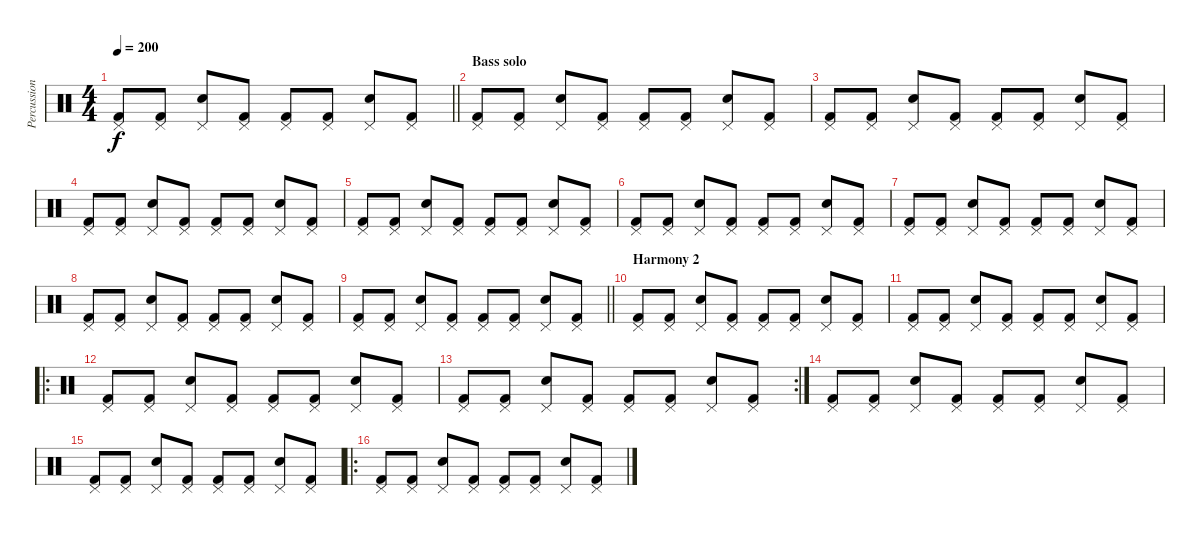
\track ("Percussion" "Percussion") {instrument percussion}
\staff {score}
\articulation defaults
\ts (4 4)
\tempo 200
\clef neutral
\barLineRight lightlight
\ks c
("Kick (hit) 2" "Pedal Hi-Hat (hit)").8{dy f} ("Kick (hit) 2" "Pedal Hi-Hat (hit)").8 ("Snare (hit) 2" "Pedal Hi-Hat (hit)").8 ("Kick (hit) 2" "Pedal Hi-Hat (hit)").8 ("Kick (hit) 2" "Pedal Hi-Hat (hit)").8 ("Kick (hit) 2" "Pedal Hi-Hat (hit)").8 ("Snare (hit) 2" "Pedal Hi-Hat (hit)").8 ("Kick (hit) 2" "Pedal Hi-Hat (hit)").8 |
\section ("" "Bass solo")
("Kick (hit) 2" "Pedal Hi-Hat (hit)").8 ("Kick (hit) 2" "Pedal Hi-Hat (hit)").8 ("Snare (hit) 2" "Pedal Hi-Hat (hit)").8 ("Kick (hit) 2" "Pedal Hi-Hat (hit)").8 ("Kick (hit) 2" "Pedal Hi-Hat (hit)").8 ("Kick (hit) 2" "Pedal Hi-Hat (hit)").8 ("Snare (hit) 2" "Pedal Hi-Hat (hit)").8 ("Kick (hit) 2" "Pedal Hi-Hat (hit)").8 |
("Kick (hit) 2" "Pedal Hi-Hat (hit)").8 ("Kick (hit) 2" "Pedal Hi-Hat (hit)").8 ("Snare (hit) 2" "Pedal Hi-Hat (hit)").8 ("Kick (hit) 2" "Pedal Hi-Hat (hit)").8 ("Kick (hit) 2" "Pedal Hi-Hat (hit)").8 ("Kick (hit) 2" "Pedal Hi-Hat (hit)").8 ("Snare (hit) 2" "Pedal Hi-Hat (hit)").8 ("Kick (hit) 2" "Pedal Hi-Hat (hit)").8 |
("Kick (hit) 2" "Pedal Hi-Hat (hit)").8 ("Kick (hit) 2" "Pedal Hi-Hat (hit)").8 ("Snare (hit) 2" "Pedal Hi-Hat (hit)").8 ("Kick (hit) 2" "Pedal Hi-Hat (hit)").8 ("Kick (hit) 2" "Pedal Hi-Hat (hit)").8 ("Kick (hit) 2" "Pedal Hi-Hat (hit)").8 ("Snare (hit) 2" "Pedal Hi-Hat (hit)").8 ("Kick (hit) 2" "Pedal Hi-Hat (hit)").8 |
("Kick (hit) 2" "Pedal Hi-Hat (hit)").8 ("Kick (hit) 2" "Pedal Hi-Hat (hit)").8 ("Snare (hit) 2" "Pedal Hi-Hat (hit)").8 ("Kick (hit) 2" "Pedal Hi-Hat (hit)").8 ("Kick (hit) 2" "Pedal Hi-Hat (hit)").8 ("Kick (hit) 2" "Pedal Hi-Hat (hit)").8 ("Snare (hit) 2" "Pedal Hi-Hat (hit)").8 ("Kick (hit) 2" "Pedal Hi-Hat (hit)").8 |
("Kick (hit) 2" "Pedal Hi-Hat (hit)").8 ("Kick (hit) 2" "Pedal Hi-Hat (hit)").8 ("Snare (hit) 2" "Pedal Hi-Hat (hit)").8 ("Kick (hit) 2" "Pedal Hi-Hat (hit)").8 ("Kick (hit) 2" "Pedal Hi-Hat (hit)").8 ("Kick (hit) 2" "Pedal Hi-Hat (hit)").8 ("Snare (hit) 2" "Pedal Hi-Hat (hit)").8 ("Kick (hit) 2" "Pedal Hi-Hat (hit)").8 |
("Kick (hit) 2" "Pedal Hi-Hat (hit)").8 ("Kick (hit) 2" "Pedal Hi-Hat (hit)").8 ("Snare (hit) 2" "Pedal Hi-Hat (hit)").8 ("Kick (hit) 2" "Pedal Hi-Hat (hit)").8 ("Kick (hit) 2" "Pedal Hi-Hat (hit)").8 ("Kick (hit) 2" "Pedal Hi-Hat (hit)").8 ("Snare (hit) 2" "Pedal Hi-Hat (hit)").8 ("Kick (hit) 2" "Pedal Hi-Hat (hit)").8 |
("Kick (hit) 2" "Pedal Hi-Hat (hit)").8 ("Kick (hit) 2" "Pedal Hi-Hat (hit)").8 ("Snare (hit) 2" "Pedal Hi-Hat (hit)").8 ("Kick (hit) 2" "Pedal Hi-Hat (hit)").8 ("Kick (hit) 2" "Pedal Hi-Hat (hit)").8 ("Kick (hit) 2" "Pedal Hi-Hat (hit)").8 ("Snare (hit) 2" "Pedal Hi-Hat (hit)").8 ("Kick (hit) 2" "Pedal Hi-Hat (hit)").8 |
\barLineRight lightlight
("Kick (hit) 2" "Pedal Hi-Hat (hit)").8 ("Kick (hit) 2" "Pedal Hi-Hat (hit)").8 ("Snare (hit) 2" "Pedal Hi-Hat (hit)").8 ("Kick (hit) 2" "Pedal Hi-Hat (hit)").8 ("Kick (hit) 2" "Pedal Hi-Hat (hit)").8 ("Kick (hit) 2" "Pedal Hi-Hat (hit)").8 ("Snare (hit) 2" "Pedal Hi-Hat (hit)").8 ("Kick (hit) 2" "Pedal Hi-Hat (hit)").8 |
\section ("" "Harmony 2")
("Kick (hit) 2" "Pedal Hi-Hat (hit)").8 ("Kick (hit) 2" "Pedal Hi-Hat (hit)").8 ("Snare (hit) 2" "Pedal Hi-Hat (hit)").8 ("Kick (hit) 2" "Pedal Hi-Hat (hit)").8 ("Kick (hit) 2" "Pedal Hi-Hat (hit)").8 ("Kick (hit) 2" "Pedal Hi-Hat (hit)").8 ("Snare (hit) 2" "Pedal Hi-Hat (hit)").8 ("Kick (hit) 2" "Pedal Hi-Hat (hit)").8 |
("Kick (hit) 2" "Pedal Hi-Hat (hit)").8 ("Kick (hit) 2" "Pedal Hi-Hat (hit)").8 ("Snare (hit) 2" "Pedal Hi-Hat (hit)").8 ("Kick (hit) 2" "Pedal Hi-Hat (hit)").8 ("Kick (hit) 2" "Pedal Hi-Hat (hit)").8 ("Kick (hit) 2" "Pedal Hi-Hat (hit)").8 ("Snare (hit) 2" "Pedal Hi-Hat (hit)").8 ("Kick (hit) 2" "Pedal Hi-Hat (hit)").8 |
\ro
("Kick (hit) 2" "Pedal Hi-Hat (hit)").8 ("Kick (hit) 2" "Pedal Hi-Hat (hit)").8 ("Snare (hit) 2" "Pedal Hi-Hat (hit)").8 ("Kick (hit) 2" "Pedal Hi-Hat (hit)").8 ("Kick (hit) 2" "Pedal Hi-Hat (hit)").8 ("Kick (hit) 2" "Pedal Hi-Hat (hit)").8 ("Snare (hit) 2" "Pedal Hi-Hat (hit)").8 ("Kick (hit) 2" "Pedal Hi-Hat (hit)").8 |
\rc 2
("Kick (hit) 2" "Pedal Hi-Hat (hit)").8 ("Kick (hit) 2" "Pedal Hi-Hat (hit)").8 ("Snare (hit) 2" "Pedal Hi-Hat (hit)").8 ("Kick (hit) 2" "Pedal Hi-Hat (hit)").8 ("Kick (hit) 2" "Pedal Hi-Hat (hit)").8 ("Kick (hit) 2" "Pedal Hi-Hat (hit)").8 ("Snare (hit) 2" "Pedal Hi-Hat (hit)").8 ("Kick (hit) 2" "Pedal Hi-Hat (hit)").8 |
("Kick (hit) 2" "Pedal Hi-Hat (hit)").8 ("Kick (hit) 2" "Pedal Hi-Hat (hit)").8 ("Snare (hit) 2" "Pedal Hi-Hat (hit)").8 ("Kick (hit) 2" "Pedal Hi-Hat (hit)").8 ("Kick (hit) 2" "Pedal Hi-Hat (hit)").8 ("Kick (hit) 2" "Pedal Hi-Hat (hit)").8 ("Snare (hit) 2" "Pedal Hi-Hat (hit)").8 ("Kick (hit) 2" "Pedal Hi-Hat (hit)").8 |
("Kick (hit) 2" "Pedal Hi-Hat (hit)").8 ("Kick (hit) 2" "Pedal Hi-Hat (hit)").8 ("Snare (hit) 2" "Pedal Hi-Hat (hit)").8 ("Kick (hit) 2" "Pedal Hi-Hat (hit)").8 ("Kick (hit) 2" "Pedal Hi-Hat (hit)").8 ("Kick (hit) 2" "Pedal Hi-Hat (hit)").8 ("Snare (hit) 2" "Pedal Hi-Hat (hit)").8 ("Kick (hit) 2" "Pedal Hi-Hat (hit)").8 |
\ro
("Kick (hit) 2" "Pedal Hi-Hat (hit)").8 ("Kick (hit) 2" "Pedal Hi-Hat (hit)").8 ("Snare (hit) 2" "Pedal Hi-Hat (hit)").8 ("Kick (hit) 2" "Pedal Hi-Hat (hit)").8 ("Kick (hit) 2" "Pedal Hi-Hat (hit)").8 ("Kick (hit) 2" "Pedal Hi-Hat (hit)").8 ("Snare (hit) 2" "Pedal Hi-Hat (hit)").8 ("Kick (hit) 2" "Pedal Hi-Hat (hit)").8
